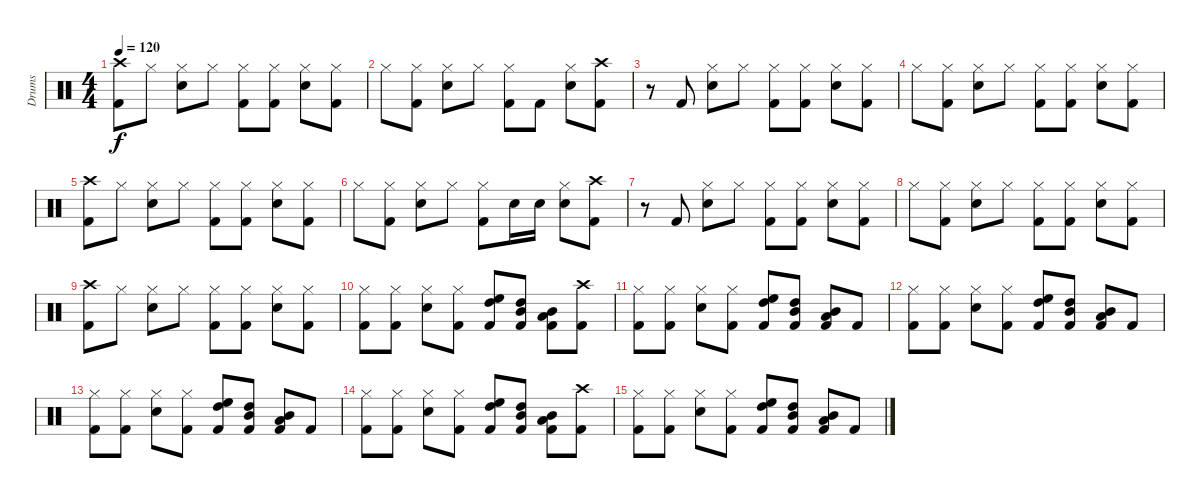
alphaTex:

\track ("Drums" "Drums") {instrument percussion}
\staff {score}
\articulation defaults
\ts (4 4)
\tempo 120
\clef neutral
\ks c
("Crash high (hit)" "Kick (hit) 2").8{dy f} "Hi-Hat (closed)".8 ("Hi-Hat (closed)" "Snare (hit) 2").8 "Hi-Hat (closed)".8 ("Hi-Hat (closed)" "Kick (hit) 2").8 ("Hi-Hat (closed)" "Kick (hit) 2").8 ("Hi-Hat (closed)" "Snare (hit) 2").8 ("Hi-Hat (closed)" "Kick (hit) 2").8 |
"Hi-Hat (closed)".8 ("Hi-Hat (closed)" "Kick (hit) 2").8 ("Hi-Hat (closed)" "Snare (hit) 2").8 "Hi-Hat (closed)".8 ("Hi-Hat (closed)" "Kick (hit) 2").8 "Kick (hit) 2".8 ("Hi-Hat (closed)" "Snare (hit) 2").8 ("Crash high (hit)" "Kick (hit) 2").8 |
r.8 "Kick (hit) 2".8 ("Hi-Hat (closed)" "Snare (hit) 2").8 "Hi-Hat (closed)".8 ("Hi-Hat (closed)" "Kick (hit) 2").8 ("Hi-Hat (closed)" "Kick (hit) 2").8 ("Hi-Hat (closed)" "Snare (hit) 2").8 ("Hi-Hat (closed)" "Kick (hit) 2").8 |
"Hi-Hat (closed)".8 ("Hi-Hat (closed)" "Kick (hit) 2").8 ("Hi-Hat (closed)" "Snare (hit) 2").8 "Hi-Hat (closed)".8 ("Hi-Hat (closed)" "Kick (hit) 2").8 ("Hi-Hat (closed)" "Kick (hit) 2").8 ("Hi-Hat (closed)" "Snare (hit) 2").8 ("Hi-Hat (closed)" "Kick (hit) 2").8 |
("Crash high (hit)" "Kick (hit) 2").8 "Hi-Hat (closed)".8 ("Hi-Hat (closed)" "Snare (hit) 2").8 "Hi-Hat (closed)".8 ("Hi-Hat (closed)" "Kick (hit) 2").8 ("Hi-Hat (closed)" "Kick (hit) 2").8 ("Hi-Hat (closed)" "Snare (hit) 2").8 ("Hi-Hat (closed)" "Kick (hit) 2").8 |
"Hi-Hat (closed)".8 ("Hi-Hat (closed)" "Kick (hit) 2").8 ("Hi-Hat (closed)" "Snare (hit) 2").8 "Hi-Hat (closed)".8 ("Hi-Hat (closed)" "Kick (hit) 2").8 "Snare (hit) 2".16 "Snare (hit) 2".16 ("Hi-Hat (closed)" "Snare (hit) 2").8 ("Crash high (hit)" "Kick (hit) 2").8 |
r.8 "Kick (hit) 2".8 ("Hi-Hat (closed)" "Snare (hit) 2").8 "Hi-Hat (closed)".8 ("Hi-Hat (closed)" "Kick (hit) 2").8 ("Hi-Hat (closed)" "Kick (hit) 2").8 ("Hi-Hat (closed)" "Snare (hit) 2").8 ("Hi-Hat (closed)" "Kick (hit) 2").8 |
"Hi-Hat (closed)".8 ("Hi-Hat (closed)" "Kick (hit) 2").8 ("Hi-Hat (closed)" "Snare (hit) 2").8 "Hi-Hat (closed)".8 ("Hi-Hat (closed)" "Kick (hit) 2").8 ("Hi-Hat (closed)" "Kick (hit) 2").8 ("Hi-Hat (closed)" "Snare (hit) 2").8 ("Hi-Hat (closed)" "Kick (hit) 2").8 |
("Crash high (hit)" "Kick (hit) 2").8 "Hi-Hat (closed)".8 ("Hi-Hat (closed)" "Snare (hit) 2").8 "Hi-Hat (closed)".8 ("Hi-Hat (closed)" "Kick (hit) 2").8 ("Hi-Hat (closed)" "Kick (hit) 2").8 ("Hi-Hat (closed)" "Snare (hit) 2").8 ("Hi-Hat (closed)" "Kick (hit) 2").8 |
("Hi-Hat (closed)" "Kick (hit) 2").8 ("Hi-Hat (closed)" "Kick (hit) 2").8 ("Hi-Hat (closed)" "Snare (hit) 2").8 ("Hi-Hat (closed)" "Kick (hit) 2").8 ("High Floor Tom (hit)" "High Tom (hit)" "Kick (hit) 2").8 ("High Tom (hit)" "Mid Tom (hit)" "Kick (hit) 2").8 ("Mid Tom (hit)" "Low Tom (hit)" "Kick (hit) 2").8 ("Crash high (hit)" "Kick (hit) 2").8 |
("Hi-Hat (closed)" "Kick (hit) 2").8 ("Hi-Hat (closed)" "Kick (hit) 2").8 ("Hi-Hat (closed)" "Snare (hit) 2").8 ("Hi-Hat (closed)" "Kick (hit) 2").8 ("High Floor Tom (hit)" "High Tom (hit)" "Kick (hit) 2").8 ("High Tom (hit)" "Mid Tom (hit)" "Kick (hit) 2").8 ("Mid Tom (hit)" "Low Tom (hit)" "Kick (hit) 2").8 "Kick (hit) 2".8 |
("Hi-Hat (closed)" "Kick (hit) 2").8 ("Hi-Hat (closed)" "Kick (hit) 2").8 ("Hi-Hat (closed)" "Snare (hit) 2").8 ("Hi-Hat (closed)" "Kick (hit) 2").8 ("High Floor Tom (hit)" "High Tom (hit)" "Kick (hit) 2").8 ("High Tom (hit)" "Mid Tom (hit)" "Kick (hit) 2").8 ("Mid Tom (hit)" "Low Tom (hit)" "Kick (hit) 2").8 "Kick (hit) 2".8 |
("Hi-Hat (closed)" "Kick (hit) 2").8 ("Hi-Hat (closed)" "Kick (hit) 2").8 ("Hi-Hat (closed)" "Snare (hit) 2").8 ("Hi-Hat (closed)" "Kick (hit) 2").8 ("High Floor Tom (hit)" "High Tom (hit)" "Kick (hit) 2").8 ("High Tom (hit)" "Mid Tom (hit)" "Kick (hit) 2").8 ("Mid Tom (hit)" "Low Tom (hit)" "Kick (hit) 2").8 "Kick (hit) 2".8 |
("Hi-Hat (closed)" "Kick (hit) 2").8 ("Hi-Hat (closed)" "Kick (hit) 2").8 ("Hi-Hat (closed)" "Snare (hit) 2").8 ("Hi-Hat (closed)" "Kick (hit) 2").8 ("High Floor Tom (hit)" "High Tom (hit)" "Kick (hit) 2").8 ("High Tom (hit)" "Mid Tom (hit)" "Kick (hit) 2").8 ("Mid Tom (hit)" "Low Tom (hit)" "Kick (hit) 2").8 ("Crash high (hit)" "Kick (hit) 2").8 |
("Hi-Hat (closed)" "Kick (hit) 2").8 ("Hi-Hat (closed)" "Kick (hit) 2").8 ("Hi-Hat (closed)" "Snare (hit) 2").8 ("Hi-Hat (closed)" "Kick (hit) 2").8 ("High Floor Tom (hit)" "High Tom (hit)" "Kick (hit) 2").8 ("High Tom (hit)" "Mid Tom (hit)" "Kick (hit) 2").8 ("Mid Tom (hit)" "Low Tom (hit)" "Kick (hit) 2").8 "Kick (hit) 2".8
